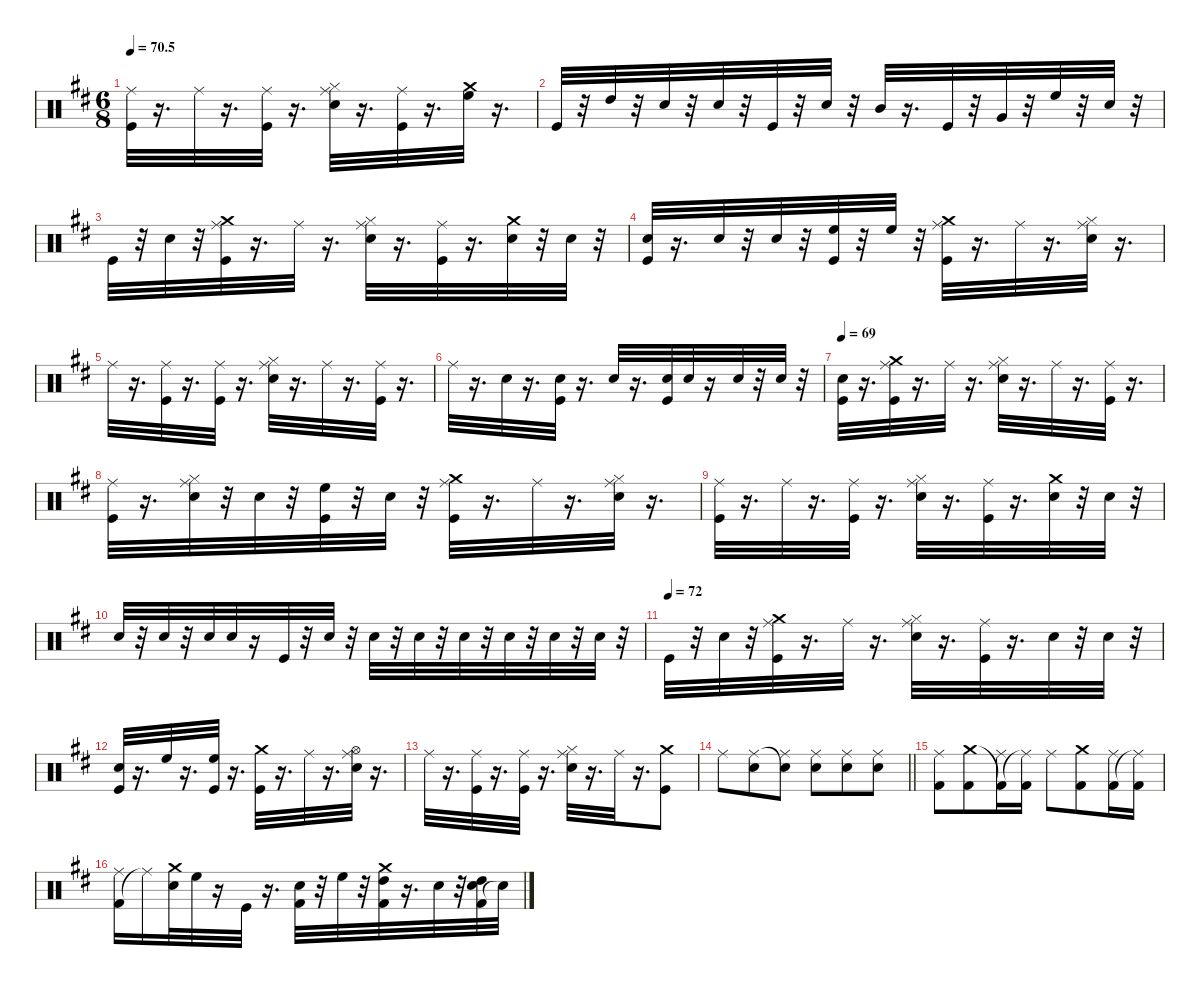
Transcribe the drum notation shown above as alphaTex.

\defaultSystemsLayout 4
\hideDynamics
\bracketExtendMode nobrackets
\singleTrackTrackNamePolicy hidden
\multiTrackTrackNamePolicy hidden
\firstSystemTrackNameMode fullname
\firstSystemTrackNameOrientation horizontal
\otherSystemsTrackNameOrientation horizontal
\track ("Drumkit" "drm.") {defaultSystemsLayout 4 instrument percussion}
\staff {score}
\articulation defaults
\ts (6 8)
\tempo
70.5
\accidentals auto
\clef neutral
\ottava regular
\simile none
\ks bminor
("Kick (hit)"{acc forcenatural} "Ride (middle)"{acc #}).32{dy fff beam Down} r.16{d beam Down} "Ride (middle)"{acc #}.32{dy f beam Down} r.16{d beam Down} ("Kick (hit)"{acc forcenatural} "Ride (middle)"{acc #}).32{beam Down} r.16{d beam Down} ("Electric Snare (hit)"{acc forcenatural} "Hi-Hat (closed)"{acc #} "Ride (middle)"{acc #}).32{dy fff beam Down} r.16{d beam Down} ("Kick (hit)"{acc forcenatural} "Ride (middle)"{acc #}).32{dy f beam Down} r.16{d beam Down} ("High Floor Tom (hit)"{acc forcenatural} "Crash medium (hit)"{acc forcenatural}).32{dy fff beam Down} r.16{d beam Down} |
"Kick (hit)"{acc forcenatural}.32{dy f beam Up} r.32{beam Up} "High Tom (hit)"{acc forcenatural}.32{beam Up} r.32{beam Up} "Electric Snare (hit)"{acc forcenatural}.32{dy mp beam Up} r.32{beam Up} "Electric Snare (hit)"{acc forcenatural}.32{dy p beam Up} r.32{beam Up} "Kick (hit)"{acc forcenatural}.32{dy f beam Up} r.32{beam Up} "Electric Snare (hit)"{acc forcenatural}.32{dy p beam Up} r.32{beam Up} "Mid Tom (hit)"{acc forcenatural}.32{dy f beam Up} r.16{d beam Up} "Kick (hit)"{acc forcenatural}.32{beam Up} r.32{beam Up} "Very Low Tom (hit)"{acc forcenatural}.32{beam Up} r.32{beam Up} "High Floor Tom (hit)"{acc forcenatural}.32{dy mp beam Up} r.32{beam Up} "Electric Snare (hit)"{acc forcenatural}.32{dy p beam Up} r.32{beam Up} |
"Kick (hit)"{acc forcenatural}.32{dy f beam Down} r.32{beam Down} "Electric Snare (hit)"{acc forcenatural}.32{dy pp beam Down} r.32{beam Down} ("Crash medium (hit)"{acc forcenatural} "Kick (hit)"{acc forcenatural} "Ride (middle)"{acc #}).32{dy fff beam Down} r.16{d beam Down} "Ride (middle)"{acc #}.32{dy f beam Down} r.16{d beam Down} ("Electric Snare (hit)"{acc forcenatural} "Hi-Hat (closed)"{acc #} "Ride (middle)"{acc #}).32{dy fff beam Down} r.16{d beam Down} ("Kick (hit)"{acc forcenatural} "Ride (middle)"{acc #}).32{beam Down} r.16{d beam Down} ("Electric Snare (hit)"{acc forcenatural} "Crash medium (hit)"{acc forcenatural}).32{dy p beam Down} r.32{beam Down} "Electric Snare (hit)"{acc forcenatural}.32{dy pp beam Down} r.32{beam Down} |
("Kick (hit)"{acc forcenatural} "Electric Snare (hit)"{acc forcenatural}).32{dy f beam Up} r.16{d beam Up} "Electric Snare (hit)"{acc forcenatural}.32{dy pp beam Up} r.32{beam Up} "Electric Snare (hit)"{acc forcenatural}.32{dy p beam Up} r.32{beam Up} ("Kick (hit)"{acc forcenatural} "High Floor Tom (hit)"{acc forcenatural}).32{dy f beam Up} r.32{beam Up} "High Floor Tom (hit)"{acc forcenatural}.32{beam Up} r.32{beam Up} ("Crash medium (hit)"{acc forcenatural} "Kick (hit)"{acc forcenatural} "Ride (middle)"{acc #}).32{dy fff beam Down} r.16{d beam Down} "Ride (middle)"{acc #}.32{dy f beam Down} r.16{d beam Down} ("Electric Snare (hit)"{acc forcenatural} "Hi-Hat (closed)"{acc #} "Ride (middle)"{acc #}).32{dy fff beam Down} r.16{d beam Down} |
"Ride (middle)"{acc #}.32{beam Down} r.16{d beam Down} ("Kick (hit)"{acc forcenatural} "Ride (middle)"{acc #}).32{beam Down} r.16{d beam Down} ("Kick (hit)"{acc forcenatural} "Ride (middle)"{acc #}).32{dy f beam Down} r.16{d beam Down} ("Electric Snare (hit)"{acc forcenatural} "Hi-Hat (closed)"{acc #} "Ride (middle)"{acc #}).32{dy fff beam Down} r.16{d beam Down} "Ride (middle)"{acc #}.32{dy mp beam Down} r.16{d beam Down} ("Kick (hit)"{acc forcenatural} "Ride (middle)"{acc #}).32{dy fff beam Down} r.16{d beam Down} |
"Ride (middle)"{acc #}.32{dy f beam Down} r.16{d beam Down} "Electric Snare (hit)"{acc forcenatural}.32{dy fff beam Down} r.16{d beam Down} ("Kick (hit)"{acc forcenatural} "Electric Snare (hit)"{acc forcenatural}).32{beam Down} r.16{d beam Down} "Electric Snare (hit)"{acc forcenatural}.32{dy pp beam Up} r.16{d beam Up} ("Kick (hit)"{acc forcenatural} "Electric Snare (hit)"{acc forcenatural}).32{dy f beam Up} "Electric Snare (hit)"{acc forcenatural}.32{dy mp beam Up} r.16{beam Up} "Electric Snare (hit)"{acc forcenatural}.32{dy p beam Up} r.32{beam Up} "Electric Snare (hit)"{acc forcenatural}.32{beam Up} r.32{beam Up} |
\tempo 69
("Kick (hit)"{acc forcenatural} "Electric Snare (hit)"{acc forcenatural}).32{dy f beam Down} r.16{d beam Down} ("Crash medium (hit)"{acc forcenatural} "Kick (hit)"{acc forcenatural} "Ride (middle)"{acc #}).32{dy fff beam Down} r.16{d beam Down} "Ride (middle)"{acc #}.32{dy f beam Down} r.16{d beam Down} ("Electric Snare (hit)"{acc forcenatural} "Hi-Hat (closed)"{acc #} "Ride (middle)"{acc #}).32{dy fff beam Down} r.16{d beam Down} "Ride (middle)"{acc #}.32{dy f beam Down} r.16{d beam Down} ("Kick (hit)"{acc forcenatural} "Ride (middle)"{acc #}).32{dy fff beam Down} r.16{d beam Down} |
("Kick (hit)"{acc forcenatural} "Ride (middle)"{acc #}).32{dy f beam Down} r.16{d beam Down} ("Electric Snare (hit)"{acc forcenatural} "Hi-Hat (closed)"{acc #} "Ride (middle)"{acc #}).32{dy fff beam Down} r.32{beam Down} "Electric Snare (hit)"{acc forcenatural}.32{dy mf beam Down} r.32{beam Down} ("Kick (hit)"{acc forcenatural} "High Floor Tom (hit)"{acc forcenatural}).32{dy f beam Down} r.32{beam Down} "Electric Snare (hit)"{acc forcenatural}.32{dy p beam Down} r.32{beam Down} ("Crash medium (hit)"{acc forcenatural} "Kick (hit)"{acc forcenatural} "Ride (middle)"{acc #}).32{dy fff beam Down} r.16{d beam Down} "Ride (middle)"{acc #}.32{dy f beam Down} r.16{d beam Down} ("Electric Snare (hit)"{acc forcenatural} "Hi-Hat (closed)"{acc #} "Ride (middle)"{acc #}).32{dy fff beam Down} r.16{d beam Down} |
("Kick (hit)"{acc forcenatural} "Ride (middle)"{acc #}).32{beam Down} r.16{d beam Down} "Ride (middle)"{acc #}.32{dy f beam Down} r.16{d beam Down} ("Kick (hit)"{acc forcenatural} "Ride (middle)"{acc #}).32{beam Down} r.16{d beam Down} ("Electric Snare (hit)"{acc forcenatural} "Hi-Hat (closed)"{acc #} "Ride (middle)"{acc #}).32{dy fff beam Down} r.16{d beam Down} ("Kick (hit)"{acc forcenatural} "Ride (middle)"{acc #}).32{dy f beam Down} r.16{d beam Down} ("Electric Snare (hit)"{acc forcenatural} "Crash medium (hit)"{acc forcenatural}).32{dy fff beam Down} r.32{beam Down} "Electric Snare (hit)"{acc forcenatural}.32{dy f beam Down} r.32{beam Down} |
"Electric Snare (hit)"{acc forcenatural}.32{dy pp beam Up} r.32{beam Up} "Electric Snare (hit)"{acc forcenatural}.32{dy mf beam Up} r.32{beam Up} "Electric Snare (hit)"{acc forcenatural}.32{dy fff beam Up} "Electric Snare (hit)"{acc forcenatural}.32{dy f beam Up} r.16{beam Up} "Kick (hit)"{acc forcenatural}.32{beam Up} r.32{beam Up} "Electric Snare (hit)"{acc forcenatural}.32{dy pp beam Up} r.32{beam Up} "Electric Snare (hit)"{acc forcenatural}.32{dy fff beam Down} r.32{beam Down} "Electric Snare (hit)"{acc forcenatural}.32{dy f beam Down} r.32{beam Down} "Electric Snare (hit)"{acc forcenatural}.32{dy pp beam Down} r.32{beam Down} "Electric Snare (hit)"{acc forcenatural}.32{dy fff beam Down} r.32{beam Down} "Electric Snare (hit)"{acc forcenatural}.32{dy mp beam Down} r.32{beam Down} "Electric Snare (hit)"{acc forcenatural}.32{dy pp beam Down} r.32{beam Down} |
\tempo (72)
"Kick (hit)"{acc forcenatural}.32{dy f beam Down} r.32{beam Down} "Electric Snare (hit)"{acc forcenatural}.32{dy mp beam Down} r.32{beam Down} ("Crash medium (hit)"{acc forcenatural} "Kick (hit)"{acc forcenatural} "Ride (middle)"{acc #}).32{dy fff beam Down} r.16{d beam Down} "Ride (middle)"{acc #}.32{dy f beam Down} r.16{d beam Down} ("Electric Snare (hit)"{acc forcenatural} "Hi-Hat (closed)"{acc #} "Ride (middle)"{acc #}).32{dy fff beam Down} r.16{d beam Down} ("Kick (hit)"{acc forcenatural} "Ride (middle)"{acc #}).32{beam Down} r.16{d beam Down} "Electric Snare (hit)"{acc forcenatural}.32{dy p beam Down} r.32{beam Down} "Electric Snare (hit)"{acc forcenatural}.32{dy pp beam Down} r.32{beam Down} |
("Kick (hit)"{acc forcenatural} "Electric Snare (hit)"{acc forcenatural}).32{dy f beam Up} r.16{d beam Up} "High Floor Tom (hit)"{acc forcenatural}.32{dy fff beam Up} r.16{d beam Up} ("Kick (hit)"{acc forcenatural} "High Floor Tom (hit)"{acc forcenatural}).32{dy f beam Up} r.16{d beam Up} ("Crash medium (hit)"{acc forcenatural} "Kick (hit)"{acc forcenatural}).32{dy fff beam Down} r.16{d beam Down} "Ride (middle)"{acc #}.32{dy f beam Down} r.16{d beam Down} ("Electric Snare (hit)"{acc forcenatural} "Hi-Hat (open)"{acc #} "Ride (middle)"{acc #}).32{dy fff beam Down} r.16{d beam Down} |
"Ride (middle)"{acc #}.32{dy mf beam Down} r.16{d beam Down} ("Kick (hit)"{acc forcenatural} "Ride (middle)"{acc #}).32{dy fff beam Down} r.16{d beam Down} ("Kick (hit)"{acc forcenatural} "Ride (middle)"{acc #}).32{dy f beam Down} r.16{d beam Down} ("Electric Snare (hit)"{acc forcenatural} "Hi-Hat (closed)"{acc #} "Ride (middle)"{acc #}).32{dy fff beam Down} r.16{d beam Down} "Ride (middle)"{acc #}.32{dy mp beam Down} r.16{d beam Down} ("Kick (hit)"{acc forcenatural} "Crash medium (hit)"{acc forcenatural}).8{dy f beam Down} |
\barLineRight lightlight "Ride (middle)"{acc #}.8{dy ff beam Down}
("Ride (middle)"{acc #} "Electric Snare (hit)"{acc forcenatural}).8{beam Down} ("Electric Snare (hit)"{t acc forcenatural} "Ride (middle)"{acc #}).8{dy f beam Down} ("Snare (hit) 2"{acc forcenatural} "Ride (middle)"{acc #}).8{beam Down} ("Electric Snare (hit)"{acc forcenatural} "Ride (middle)"{acc #}).8{beam Down} ("Electric Snare (hit)"{acc forcenatural} "Ride (middle)"{acc #}).8{beam Down} |
("Kick (hit) 2"{acc forcenatural} "Ride (middle)"{acc #}).8{beam Down} ("Crash medium (hit)"{acc forcenatural} "Kick (hit) 2"{acc forcenatural}).8{dy ff beam Down} ("Kick (hit) 2"{t acc forcenatural} "Ride (middle)"{acc #}).16{beam Down} ("Ride (middle)"{t acc #} "Kick (hit) 2"{acc forcenatural}).16{beam Down} "Ride (middle)"{acc #}.8{beam Down} ("Kick (hit) 2"{acc forcenatural} "Crash medium (hit)"{acc forcenatural}).8{beam Down} ("Kick (hit) 2"{acc forcenatural} "Ride (middle)"{acc #}).16{beam Down} ("Ride (middle)"{t acc #} "Kick (hit) 2"{acc forcenatural}).16{beam Down} |
("Kick (hit) 2"{acc forcenatural} "Ride (middle)"{acc #}).16{beam Down} "Ride (middle)"{t acc #}.16{beam Down} ("Electric Snare (hit)"{acc forcenatural} "Crash medium (hit)"{acc forcenatural}).32{dy fff beam Down} "High Floor Tom (hit)"{acc forcenatural}.32{dy f beam Down} r.16{beam Down} "Kick (hit)"{acc forcenatural}.32{dy fff beam Down} r.16{d beam Down} ("Kick (hit) 2"{acc forcenatural} "Electric Snare (hit)"{acc forcenatural}).32{dy f beam Down} r.32{beam Down} "High Floor Tom (hit)"{acc forcenatural}.32{dy mp beam Down} r.32{beam Down} ("Kick (hit) 2"{acc forcenatural} "High Tom (hit)"{acc forcenatural} "Crash medium (hit)"{acc forcenatural}).32{dy f beam Down} r.16{d beam Down} "Electric Snare (hit)"{acc forcenatural}.32{dy pp beam Down} r.32{beam Down} ("Kick (hit) 2"{acc forcenatural} "High Tom (hit)"{acc forcenatural} "Electric Snare (hit)"{acc forcenatural}).32{dy f beam Down} "Electric Snare (hit)"{t acc forcenatural}.32{dy fff beam Down}
